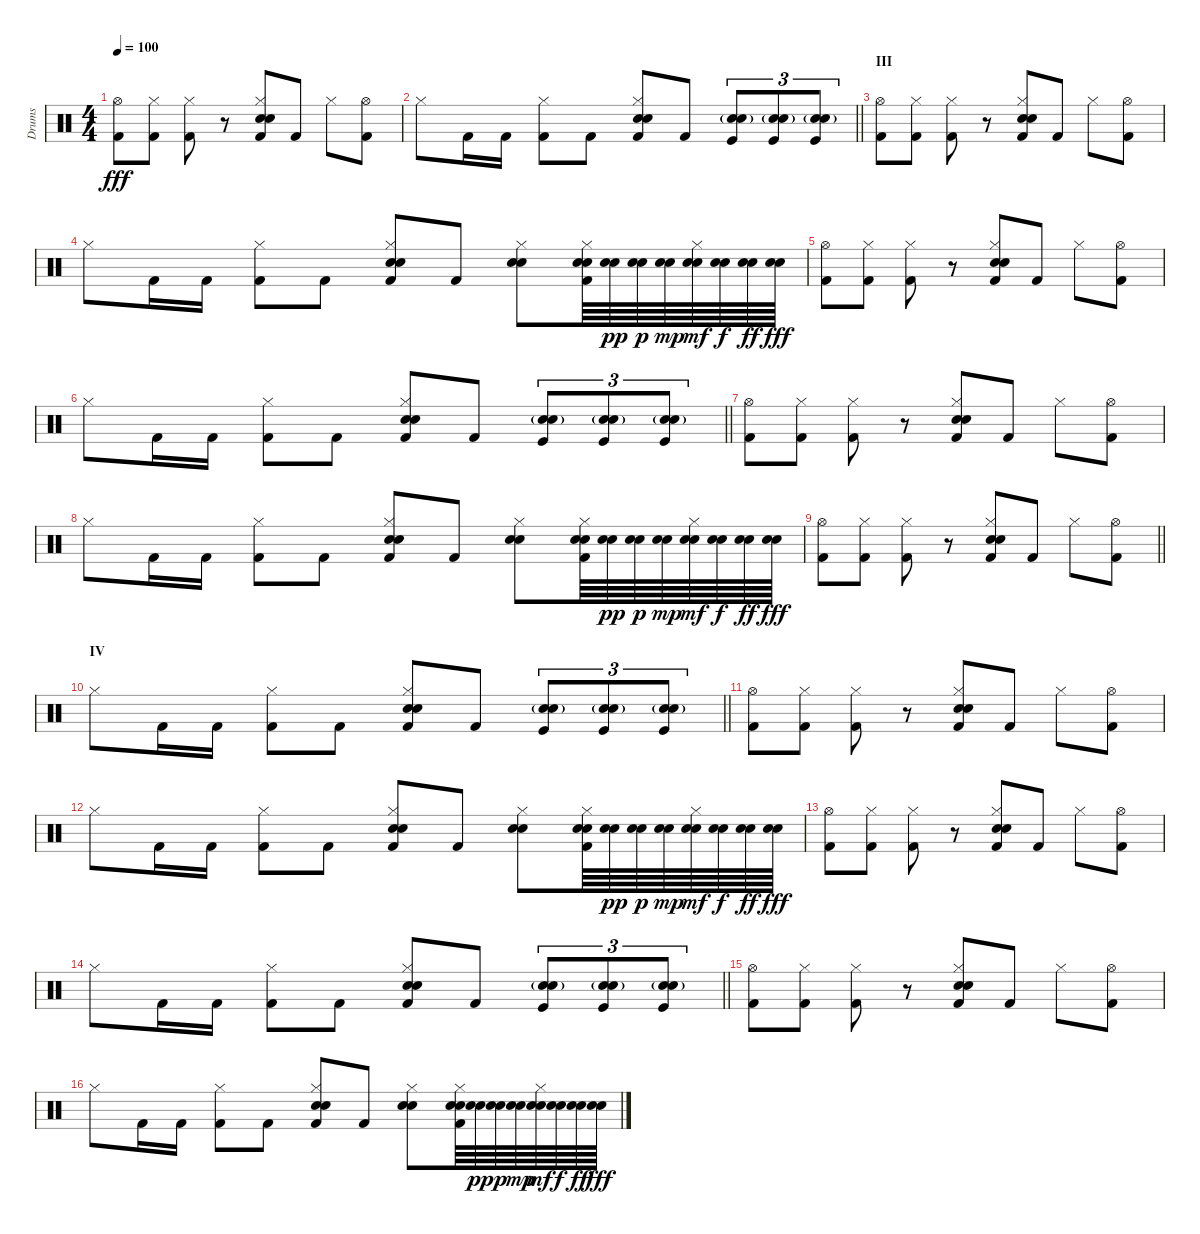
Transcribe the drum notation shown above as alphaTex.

\track ("Drums" "Drums") {instrument percussion}
\staff {score}
\articulation defaults
\ts (4 4)
\tempo 100
\clef neutral
\ks c
("Hi-Hat (open)" "Kick (hit) 2").8{dy fff} ("Hi-Hat (closed)" "Kick (hit) 2").8 ("Hi-Hat (closed)" "Kick (hit) 2").8 r.8 ("Hi-Hat (closed)" "Hand Clap (hit)" "Snare (hit) 2" "Kick (hit) 2").8 "Kick (hit) 2".8 "Hi-Hat (closed)".8 ("Hi-Hat (open)" "Kick (hit) 2").8 |
\barLineRight lightlight "Hi-Hat (closed)".8 "Kick (hit) 2".16 "Kick (hit) 2".16
("Hi-Hat (closed)" "Kick (hit) 2").8 "Kick (hit) 2".8 ("Hi-Hat (closed)" "Hand Clap (hit)" "Snare (hit) 2" "Kick (hit) 2").8 "Kick (hit) 2".8 ("Hand Clap (hit)"{g} "Snare (hit) 2" "Kick (hit)").8{tu (3 2)} ("Hand Clap (hit)"{g} "Snare (hit) 2" "Kick (hit)").8{tu (3 2)} ("Hand Clap (hit)"{g} "Snare (hit) 2" "Kick (hit)").8{tu (3 2)} |
\section ("" "III")
("Hi-Hat (open)" "Kick (hit) 2").8 ("Hi-Hat (closed)" "Kick (hit) 2").8 ("Hi-Hat (closed)" "Kick (hit) 2").8 r.8 ("Hi-Hat (closed)" "Hand Clap (hit)" "Snare (hit) 2" "Kick (hit) 2").8 "Kick (hit) 2".8 "Hi-Hat (closed)".8 ("Hi-Hat (open)" "Kick (hit) 2").8 |
"Hi-Hat (closed)".8 "Kick (hit) 2".16 "Kick (hit) 2".16 ("Hi-Hat (closed)" "Kick (hit) 2").8 "Kick (hit) 2".8 ("Hi-Hat (closed)" "Hand Clap (hit)" "Snare (hit) 2" "Kick (hit) 2").8 "Kick (hit) 2".8 ("Hi-Hat (closed)" "Hand Clap (hit)" "Snare (hit) 2").8 ("Hi-Hat (closed)" "Hand Clap (hit)" "Snare (hit) 2" "Kick (hit) 2").64 ("Hand Clap (hit)" "Snare (hit) 2").64{dy pp} ("Hand Clap (hit)" "Snare (hit) 2").64{dy p} ("Hand Clap (hit)" "Snare (hit) 2").64{dy mp} ("Hi-Hat (closed)" "Hand Clap (hit)" "Snare (hit) 2").64{dy mf} ("Hand Clap (hit)" "Snare (hit) 2").64{dy f} ("Hand Clap (hit)" "Snare (hit) 2").64{dy ff} ("Hand Clap (hit)" "Snare (hit) 2").64{dy fff} |
("Hi-Hat (open)" "Kick (hit) 2").8 ("Hi-Hat (closed)" "Kick (hit) 2").8 ("Hi-Hat (closed)" "Kick (hit) 2").8 r.8 ("Hi-Hat (closed)" "Hand Clap (hit)" "Snare (hit) 2" "Kick (hit) 2").8 "Kick (hit) 2".8 "Hi-Hat (closed)".8 ("Hi-Hat (open)" "Kick (hit) 2").8 |
\barLineRight lightlight "Hi-Hat (closed)".8 "Kick (hit) 2".16 "Kick (hit) 2".16
("Hi-Hat (closed)" "Kick (hit) 2").8 "Kick (hit) 2".8 ("Hi-Hat (closed)" "Hand Clap (hit)" "Snare (hit) 2" "Kick (hit) 2").8 "Kick (hit) 2".8 ("Hand Clap (hit)"{g} "Snare (hit) 2" "Kick (hit)").8{tu (3 2)} ("Hand Clap (hit)"{g} "Snare (hit) 2" "Kick (hit)").8{tu (3 2)} ("Hand Clap (hit)"{g} "Snare (hit) 2" "Kick (hit)").8{tu (3 2)} |
("Hi-Hat (open)" "Kick (hit) 2").8 ("Hi-Hat (closed)" "Kick (hit) 2").8 ("Hi-Hat (closed)" "Kick (hit) 2").8 r.8 ("Hi-Hat (closed)" "Hand Clap (hit)" "Snare (hit) 2" "Kick (hit) 2").8 "Kick (hit) 2".8 "Hi-Hat (closed)".8 ("Hi-Hat (open)" "Kick (hit) 2").8 |
"Hi-Hat (closed)".8 "Kick (hit) 2".16 "Kick (hit) 2".16 ("Hi-Hat (closed)" "Kick (hit) 2").8 "Kick (hit) 2".8 ("Hi-Hat (closed)" "Hand Clap (hit)" "Snare (hit) 2" "Kick (hit) 2").8 "Kick (hit) 2".8 ("Hi-Hat (closed)" "Hand Clap (hit)" "Snare (hit) 2").8 ("Hi-Hat (closed)" "Hand Clap (hit)" "Snare (hit) 2" "Kick (hit) 2").64 ("Hand Clap (hit)" "Snare (hit) 2").64{dy pp} ("Hand Clap (hit)" "Snare (hit) 2").64{dy p} ("Hand Clap (hit)" "Snare (hit) 2").64{dy mp} ("Hi-Hat (closed)" "Hand Clap (hit)" "Snare (hit) 2").64{dy mf} ("Hand Clap (hit)" "Snare (hit) 2").64{dy f} ("Hand Clap (hit)" "Snare (hit) 2").64{dy ff} ("Hand Clap (hit)" "Snare (hit) 2").64{dy fff} |
\barLineRight lightlight
("Hi-Hat (open)" "Kick (hit) 2").8 ("Hi-Hat (closed)" "Kick (hit) 2").8 ("Hi-Hat (closed)" "Kick (hit) 2").8 r.8 ("Hi-Hat (closed)" "Hand Clap (hit)" "Snare (hit) 2" "Kick (hit) 2").8 "Kick (hit) 2".8 "Hi-Hat (closed)".8 ("Hi-Hat (open)" "Kick (hit) 2").8 |
\section ("" "IV")
\barLineRight lightlight "Hi-Hat (closed)".8 "Kick (hit) 2".16 "Kick (hit) 2".16
("Hi-Hat (closed)" "Kick (hit) 2").8 "Kick (hit) 2".8 ("Hi-Hat (closed)" "Hand Clap (hit)" "Snare (hit) 2" "Kick (hit) 2").8 "Kick (hit) 2".8 ("Hand Clap (hit)"{g} "Snare (hit) 2" "Kick (hit)").8{tu (3 2)} ("Hand Clap (hit)"{g} "Snare (hit) 2" "Kick (hit)").8{tu (3 2)} ("Hand Clap (hit)"{g} "Snare (hit) 2" "Kick (hit)").8{tu (3 2)} |
("Hi-Hat (open)" "Kick (hit) 2").8 ("Hi-Hat (closed)" "Kick (hit) 2").8 ("Hi-Hat (closed)" "Kick (hit) 2").8 r.8 ("Hi-Hat (closed)" "Hand Clap (hit)" "Snare (hit) 2" "Kick (hit) 2").8 "Kick (hit) 2".8 "Hi-Hat (closed)".8 ("Hi-Hat (open)" "Kick (hit) 2").8 |
"Hi-Hat (closed)".8 "Kick (hit) 2".16 "Kick (hit) 2".16 ("Hi-Hat (closed)" "Kick (hit) 2").8 "Kick (hit) 2".8 ("Hi-Hat (closed)" "Hand Clap (hit)" "Snare (hit) 2" "Kick (hit) 2").8 "Kick (hit) 2".8 ("Hi-Hat (closed)" "Hand Clap (hit)" "Snare (hit) 2").8 ("Hi-Hat (closed)" "Hand Clap (hit)" "Snare (hit) 2" "Kick (hit) 2").64 ("Hand Clap (hit)" "Snare (hit) 2").64{dy pp} ("Hand Clap (hit)" "Snare (hit) 2").64{dy p} ("Hand Clap (hit)" "Snare (hit) 2").64{dy mp} ("Hi-Hat (closed)" "Hand Clap (hit)" "Snare (hit) 2").64{dy mf} ("Hand Clap (hit)" "Snare (hit) 2").64{dy f} ("Hand Clap (hit)" "Snare (hit) 2").64{dy ff} ("Hand Clap (hit)" "Snare (hit) 2").64{dy fff} |
("Hi-Hat (open)" "Kick (hit) 2").8 ("Hi-Hat (closed)" "Kick (hit) 2").8 ("Hi-Hat (closed)" "Kick (hit) 2").8 r.8 ("Hi-Hat (closed)" "Hand Clap (hit)" "Snare (hit) 2" "Kick (hit) 2").8 "Kick (hit) 2".8 "Hi-Hat (closed)".8 ("Hi-Hat (open)" "Kick (hit) 2").8 |
\barLineRight lightlight "Hi-Hat (closed)".8 "Kick (hit) 2".16 "Kick (hit) 2".16
("Hi-Hat (closed)" "Kick (hit) 2").8 "Kick (hit) 2".8 ("Hi-Hat (closed)" "Hand Clap (hit)" "Snare (hit) 2" "Kick (hit) 2").8 "Kick (hit) 2".8 ("Hand Clap (hit)"{g} "Snare (hit) 2" "Kick (hit)").8{tu (3 2)} ("Hand Clap (hit)"{g} "Snare (hit) 2" "Kick (hit)").8{tu (3 2)} ("Hand Clap (hit)"{g} "Snare (hit) 2" "Kick (hit)").8{tu (3 2)} |
("Hi-Hat (open)" "Kick (hit) 2").8 ("Hi-Hat (closed)" "Kick (hit) 2").8 ("Hi-Hat (closed)" "Kick (hit) 2").8 r.8 ("Hi-Hat (closed)" "Hand Clap (hit)" "Snare (hit) 2" "Kick (hit) 2").8 "Kick (hit) 2".8 "Hi-Hat (closed)".8 ("Hi-Hat (open)" "Kick (hit) 2").8 |
"Hi-Hat (closed)".8 "Kick (hit) 2".16 "Kick (hit) 2".16 ("Hi-Hat (closed)" "Kick (hit) 2").8 "Kick (hit) 2".8 ("Hi-Hat (closed)" "Hand Clap (hit)" "Snare (hit) 2" "Kick (hit) 2").8 "Kick (hit) 2".8 ("Hi-Hat (closed)" "Hand Clap (hit)" "Snare (hit) 2").8 ("Hi-Hat (closed)" "Hand Clap (hit)" "Snare (hit) 2" "Kick (hit) 2").64 ("Hand Clap (hit)" "Snare (hit) 2").64{dy pp} ("Hand Clap (hit)" "Snare (hit) 2").64{dy p} ("Hand Clap (hit)" "Snare (hit) 2").64{dy mp} ("Hi-Hat (closed)" "Hand Clap (hit)" "Snare (hit) 2").64{dy mf} ("Hand Clap (hit)" "Snare (hit) 2").64{dy f} ("Hand Clap (hit)" "Snare (hit) 2").64{dy ff} ("Hand Clap (hit)" "Snare (hit) 2").64{dy fff}
